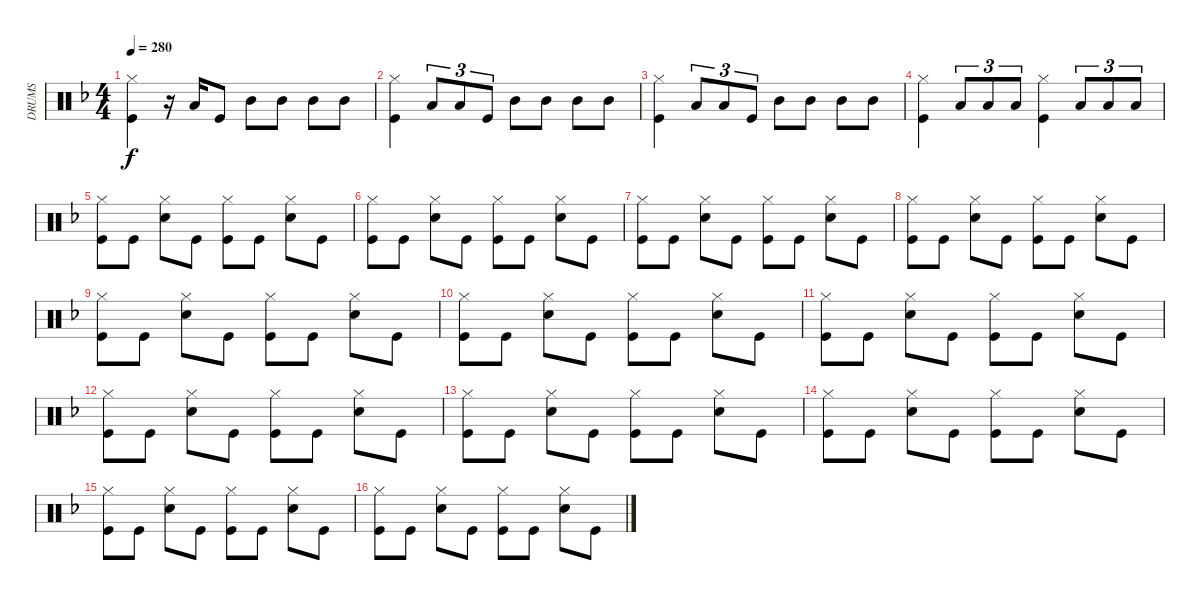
\track ("DRUMS" "DRUMS") {instrument percussion}
\staff {score}
\articulation defaults
\ts (4 4)
\tempo 280
\clef neutral
\ks dminor
("Hi-Hat (closed)" "Kick (hit)").4{dy f} r.16 "Low Tom (hit)".16 "Kick (hit)".8 "Mid Tom (hit)".8 "Mid Tom (hit)".8 "Mid Tom (hit)".8 "Mid Tom (hit)".8 |
("Hi-Hat (closed)" "Kick (hit)").4 "Low Tom (hit)".8{tu (3 2)} "Low Tom (hit)".8{tu (3 2)} "Kick (hit)".8{tu (3 2)} "Mid Tom (hit)".8 "Mid Tom (hit)".8 "Mid Tom (hit)".8 "Mid Tom (hit)".8 |
("Hi-Hat (closed)" "Kick (hit)").4 "Low Tom (hit)".8{tu (3 2)} "Low Tom (hit)".8{tu (3 2)} "Kick (hit)".8{tu (3 2)} "Mid Tom (hit)".8 "Mid Tom (hit)".8 "Mid Tom (hit)".8 "Mid Tom (hit)".8 |
("Hi-Hat (closed)" "Kick (hit)").4 "Low Tom (hit)".8{tu (3 2)} "Low Tom (hit)".8{tu (3 2)} "Low Tom (hit)".8{tu (3 2)} ("Hi-Hat (closed)" "Kick (hit)").4 "Low Tom (hit)".8{tu (3 2)} "Low Tom (hit)".8{tu (3 2)} "Low Tom (hit)".8{tu (3 2)} |
("Hi-Hat (closed)" "Kick (hit)").8 "Kick (hit)".8 ("Hi-Hat (closed)" "Snare (hit) 2").8 "Kick (hit)".8 ("Hi-Hat (closed)" "Kick (hit)").8 "Kick (hit)".8 ("Hi-Hat (closed)" "Snare (hit) 2").8 "Kick (hit)".8 |
("Hi-Hat (closed)" "Kick (hit)").8 "Kick (hit)".8 ("Hi-Hat (closed)" "Snare (hit) 2").8 "Kick (hit)".8 ("Hi-Hat (closed)" "Kick (hit)").8 "Kick (hit)".8 ("Hi-Hat (closed)" "Snare (hit) 2").8 "Kick (hit)".8 |
("Hi-Hat (closed)" "Kick (hit)").8 "Kick (hit)".8 ("Hi-Hat (closed)" "Snare (hit) 2").8 "Kick (hit)".8 ("Hi-Hat (closed)" "Kick (hit)").8 "Kick (hit)".8 ("Hi-Hat (closed)" "Snare (hit) 2").8 "Kick (hit)".8 |
("Hi-Hat (closed)" "Kick (hit)").8 "Kick (hit)".8 ("Hi-Hat (closed)" "Snare (hit) 2").8 "Kick (hit)".8 ("Hi-Hat (closed)" "Kick (hit)").8 "Kick (hit)".8 ("Hi-Hat (closed)" "Snare (hit) 2").8 "Kick (hit)".8 |
("Hi-Hat (closed)" "Kick (hit)").8 "Kick (hit)".8 ("Hi-Hat (closed)" "Snare (hit) 2").8 "Kick (hit)".8 ("Hi-Hat (closed)" "Kick (hit)").8 "Kick (hit)".8 ("Hi-Hat (closed)" "Snare (hit) 2").8 "Kick (hit)".8 |
("Hi-Hat (closed)" "Kick (hit)").8 "Kick (hit)".8 ("Hi-Hat (closed)" "Snare (hit) 2").8 "Kick (hit)".8 ("Hi-Hat (closed)" "Kick (hit)").8 "Kick (hit)".8 ("Hi-Hat (closed)" "Snare (hit) 2").8 "Kick (hit)".8 |
("Hi-Hat (closed)" "Kick (hit)").8 "Kick (hit)".8 ("Hi-Hat (closed)" "Snare (hit) 2").8 "Kick (hit)".8 ("Hi-Hat (closed)" "Kick (hit)").8 "Kick (hit)".8 ("Hi-Hat (closed)" "Snare (hit) 2").8 "Kick (hit)".8 |
("Hi-Hat (closed)" "Kick (hit)").8 "Kick (hit)".8 ("Hi-Hat (closed)" "Snare (hit) 2").8 "Kick (hit)".8 ("Hi-Hat (closed)" "Kick (hit)").8 "Kick (hit)".8 ("Hi-Hat (closed)" "Snare (hit) 2").8 "Kick (hit)".8 |
("Hi-Hat (closed)" "Kick (hit)").8 "Kick (hit)".8 ("Hi-Hat (closed)" "Snare (hit) 2").8 "Kick (hit)".8 ("Hi-Hat (closed)" "Kick (hit)").8 "Kick (hit)".8 ("Hi-Hat (closed)" "Snare (hit) 2").8 "Kick (hit)".8 |
("Hi-Hat (closed)" "Kick (hit)").8 "Kick (hit)".8 ("Hi-Hat (closed)" "Snare (hit) 2").8 "Kick (hit)".8 ("Hi-Hat (closed)" "Kick (hit)").8 "Kick (hit)".8 ("Hi-Hat (closed)" "Snare (hit) 2").8 "Kick (hit)".8 |
("Hi-Hat (closed)" "Kick (hit)").8 "Kick (hit)".8 ("Hi-Hat (closed)" "Snare (hit) 2").8 "Kick (hit)".8 ("Hi-Hat (closed)" "Kick (hit)").8 "Kick (hit)".8 ("Hi-Hat (closed)" "Snare (hit) 2").8 "Kick (hit)".8 |
("Hi-Hat (closed)" "Kick (hit)").8 "Kick (hit)".8 ("Hi-Hat (closed)" "Snare (hit) 2").8 "Kick (hit)".8 ("Hi-Hat (closed)" "Kick (hit)").8 "Kick (hit)".8 ("Hi-Hat (closed)" "Snare (hit) 2").8 "Kick (hit)".8
